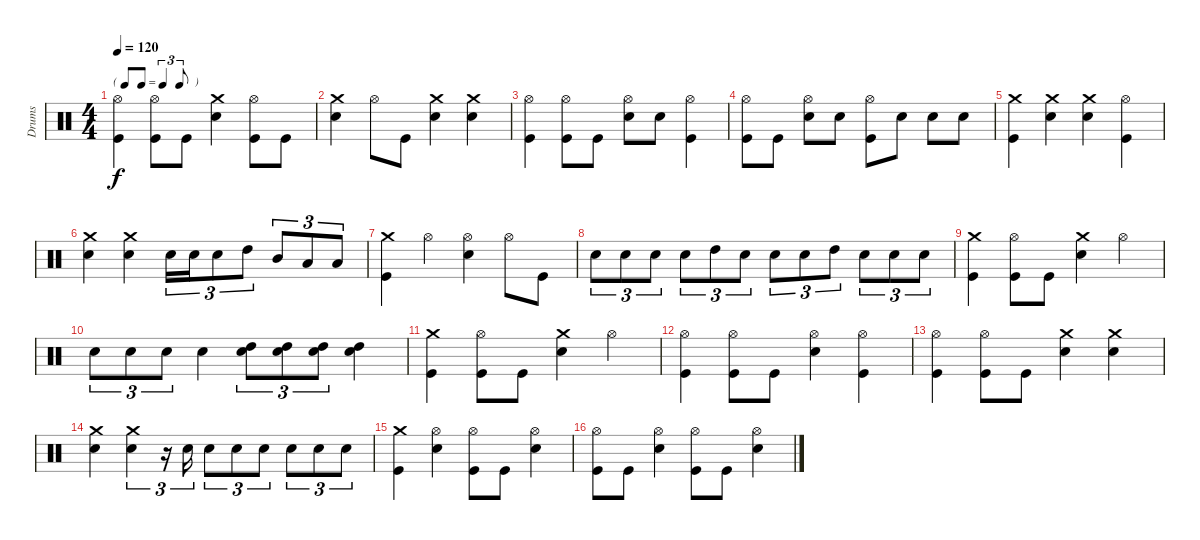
\track ("Drums" "Drums") {instrument percussion}
\staff {score}
\articulation defaults
\ts (4 4)
\tf triplet8th
\tempo 120
\clef neutral
\ks c
("Kick (hit)" "Hi-Hat (open)").4{dy f} ("Kick (hit)" "Hi-Hat (open)").8 "Kick (hit)".8 ("Electric Snare (hit)" "Crash medium (hit)").4 ("Kick (hit)" "Hi-Hat (open)").8 "Kick (hit)".8 |
("Electric Snare (hit)" "Crash medium (hit)").4 "Hi-Hat (open)".8 "Kick (hit)".8 ("Electric Snare (hit)" "Crash medium (hit)").4 ("Electric Snare (hit)" "Crash medium (hit)").4 |
("Kick (hit)" "Hi-Hat (open)").4 ("Kick (hit)" "Hi-Hat (open)").8 "Kick (hit)".8 ("Electric Snare (hit)" "Hi-Hat (open)").8 "Electric Snare (hit)".8 ("Kick (hit)" "Hi-Hat (open)").4 |
("Kick (hit)" "Hi-Hat (open)").8 "Kick (hit)".8 ("Electric Snare (hit)" "Hi-Hat (open)").8 "Electric Snare (hit)".8 ("Kick (hit)" "Hi-Hat (open)").8 "Electric Snare (hit)".8 "Electric Snare (hit)".8 "Electric Snare (hit)".8 |
("Kick (hit)" "Crash medium (hit)").4 ("Electric Snare (hit)" "Crash medium (hit)").4 ("Electric Snare (hit)" "Crash medium (hit)").4 ("Kick (hit)" "Hi-Hat (open)").4 |
("Electric Snare (hit)" "Crash medium (hit)").4 ("Electric Snare (hit)" "Crash medium (hit)").4 "Electric Snare (hit)".16{tu (3 2)} "Electric Snare (hit)".16{tu (3 2)} "Electric Snare (hit)".8{tu (3 2)} "High Tom (hit)".8{tu (3 2)} "Mid Tom (hit)".8{tu (3 2)} "Low Tom (hit)".8{tu (3 2)} "Low Tom (hit)".8{tu (3 2)} |
("Kick (hit)" "Crash medium (hit)").4 "Hi-Hat (open)".4 ("Electric Snare (hit)" "Hi-Hat (open)").4 "Hi-Hat (open)".8 "Kick (hit)".8 |
"Electric Snare (hit)".8{tu (3 2)} "Electric Snare (hit)".8{tu (3 2)} "Electric Snare (hit)".8{tu (3 2)} "Electric Snare (hit)".8{tu (3 2)} "High Tom (hit)".8{tu (3 2)} "Electric Snare (hit)".8{tu (3 2)} "Electric Snare (hit)".8{tu (3 2)} "Electric Snare (hit)".8{tu (3 2)} "High Tom (hit)".8{tu (3 2)} "Electric Snare (hit)".8{tu (3 2)} "Electric Snare (hit)".8{tu (3 2)} "Electric Snare (hit)".8{tu (3 2)} |
("Kick (hit)" "Crash medium (hit)").4 ("Kick (hit)" "Hi-Hat (open)").8 "Kick (hit)".8 ("Electric Snare (hit)" "Crash medium (hit)").4 "Hi-Hat (open)".4 |
"Electric Snare (hit)".8{tu (3 2)} "Electric Snare (hit)".8{tu (3 2)} "Electric Snare (hit)".8{tu (3 2)} "Electric Snare (hit)".4 ("Electric Snare (hit)" "High Tom (hit)").8{tu (3 2)} ("Electric Snare (hit)" "High Tom (hit)").8{tu (3 2)} ("Electric Snare (hit)" "High Tom (hit)").8{tu (3 2)} ("Electric Snare (hit)" "High Tom (hit)").4 |
("Kick (hit)" "Crash medium (hit)").4 ("Kick (hit)" "Hi-Hat (open)").8 "Kick (hit)".8 ("Electric Snare (hit)" "Crash medium (hit)").4 "Hi-Hat (open)".4 |
("Kick (hit)" "Hi-Hat (open)").4 ("Kick (hit)" "Hi-Hat (open)").8 "Kick (hit)".8 ("Electric Snare (hit)" "Hi-Hat (open)").4 ("Kick (hit)" "Hi-Hat (open)").4 |
("Kick (hit)" "Hi-Hat (open)").4 ("Kick (hit)" "Hi-Hat (open)").8 "Kick (hit)".8 ("Electric Snare (hit)" "Crash medium (hit)").4 ("Electric Snare (hit)" "Crash medium (hit)").4 |
("Electric Snare (hit)" "Crash medium (hit)").4 ("Electric Snare (hit)" "Crash medium (hit)").4{tu (3 2)} r.16{tu (3 2)} "Electric Snare (hit)".16{tu (3 2)} "Electric Snare (hit)".8{tu (3 2)} "Electric Snare (hit)".8{tu (3 2)} "Electric Snare (hit)".8{tu (3 2)} "Electric Snare (hit)".8{tu (3 2)} "Electric Snare (hit)".8{tu (3 2)} "Electric Snare (hit)".8{tu (3 2)} |
("Kick (hit)" "Crash medium (hit)").4 ("Electric Snare (hit)" "Hi-Hat (open)").4 ("Kick (hit)" "Hi-Hat (open)").8 "Kick (hit)".8 ("Electric Snare (hit)" "Hi-Hat (open)").4 |
("Kick (hit)" "Hi-Hat (open)").8 "Kick (hit)".8 ("Electric Snare (hit)" "Hi-Hat (open)").4 ("Kick (hit)" "Hi-Hat (open)").8 "Kick (hit)".8 ("Electric Snare (hit)" "Hi-Hat (open)").4
